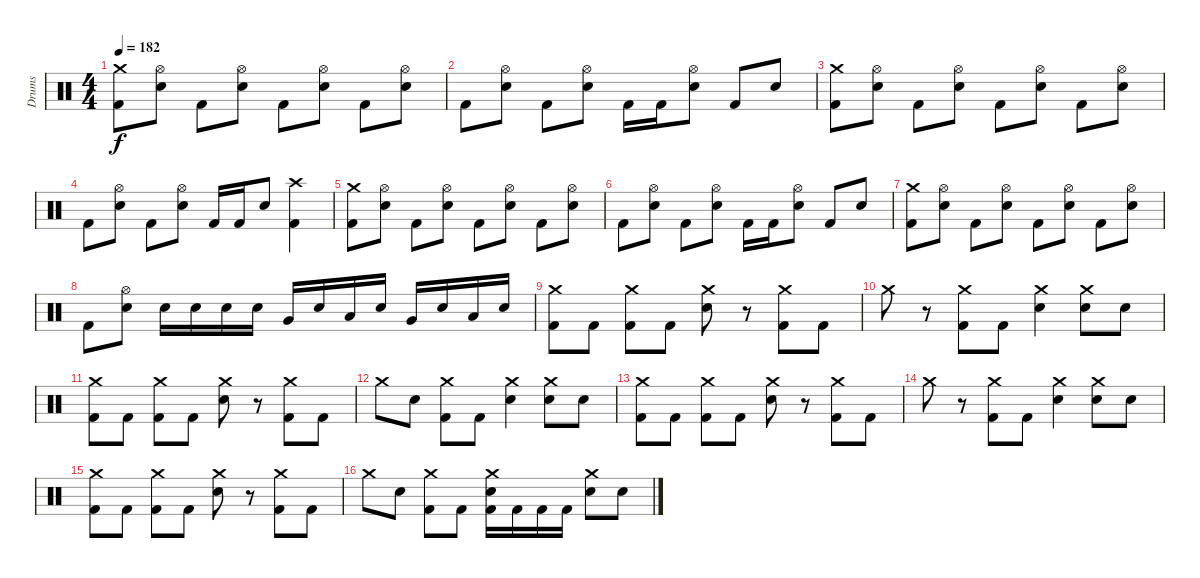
\track ("Drums" "Drums") {instrument percussion}
\staff
\articulation defaults
\ts (4 4)
\tempo 182
\clef neutral
\ks c
("Crash medium (hit)" "Kick (hit) 2").8{dy f} ("Hi-Hat (open)" "Electric Snare (hit)").8 "Kick (hit) 2".8 ("Hi-Hat (open)" "Electric Snare (hit)").8 "Kick (hit) 2".8 ("Hi-Hat (open)" "Electric Snare (hit)").8 "Kick (hit) 2".8 ("Hi-Hat (open)" "Electric Snare (hit)").8 |
"Kick (hit) 2".8 ("Hi-Hat (open)" "Electric Snare (hit)").8 "Kick (hit) 2".8 ("Hi-Hat (open)" "Electric Snare (hit)").8 "Kick (hit) 2".16 "Kick (hit) 2".16 ("Hi-Hat (open)" "Electric Snare (hit)").8 "Kick (hit) 2".8 "Electric Snare (hit)".8 |
("Crash medium (hit)" "Kick (hit) 2").8 ("Hi-Hat (open)" "Electric Snare (hit)").8 "Kick (hit) 2".8 ("Hi-Hat (open)" "Electric Snare (hit)").8 "Kick (hit) 2".8 ("Hi-Hat (open)" "Electric Snare (hit)").8 "Kick (hit) 2".8 ("Hi-Hat (open)" "Electric Snare (hit)").8 |
"Kick (hit) 2".8 ("Hi-Hat (open)" "Electric Snare (hit)").8 "Kick (hit) 2".8 ("Hi-Hat (open)" "Electric Snare (hit)").8 "Kick (hit) 2".16 "Kick (hit) 2".16 "Electric Snare (hit)".8 ("Crash high (hit)" "Kick (hit) 2").4 |
("Crash medium (hit)" "Kick (hit) 2").8 ("Hi-Hat (open)" "Electric Snare (hit)").8 "Kick (hit) 2".8 ("Hi-Hat (open)" "Electric Snare (hit)").8 "Kick (hit) 2".8 ("Hi-Hat (open)" "Electric Snare (hit)").8 "Kick (hit) 2".8 ("Hi-Hat (open)" "Electric Snare (hit)").8 |
"Kick (hit) 2".8 ("Hi-Hat (open)" "Electric Snare (hit)").8 "Kick (hit) 2".8 ("Hi-Hat (open)" "Electric Snare (hit)").8 "Kick (hit) 2".16 "Kick (hit) 2".16 ("Hi-Hat (open)" "Electric Snare (hit)").8 "Kick (hit) 2".8 "Electric Snare (hit)".8 |
("Crash medium (hit)" "Kick (hit) 2").8 ("Hi-Hat (open)" "Electric Snare (hit)").8 "Kick (hit) 2".8 ("Hi-Hat (open)" "Electric Snare (hit)").8 "Kick (hit) 2".8 ("Hi-Hat (open)" "Electric Snare (hit)").8 "Kick (hit) 2".8 ("Hi-Hat (open)" "Electric Snare (hit)").8 |
"Kick (hit) 2".8 ("Hi-Hat (open)" "Electric Snare (hit)").8 "Electric Snare (hit)".16 "Electric Snare (hit)".16 "Electric Snare (hit)".16 "Electric Snare (hit)".16 "Very Low Tom (hit)".16 "Electric Snare (hit)".16 "Low Floor Tom (hit)".16 "Electric Snare (hit)".16 "Very Low Tom (hit)".16 "Electric Snare (hit)".16 "Low Floor Tom (hit)".16 "Electric Snare (hit)".16 |
("Crash medium (hit)" "Kick (hit) 2").8 "Kick (hit) 2".8 ("Crash medium (hit)" "Kick (hit) 2").8 "Kick (hit) 2".8 ("Crash medium (hit)" "Electric Snare (hit)").8 r.8 ("Crash medium (hit)" "Kick (hit) 2").8 "Kick (hit) 2".8 |
"Crash medium (hit)".8 r.8 ("Crash medium (hit)" "Kick (hit) 2").8 "Kick (hit) 2".8 ("Crash medium (hit)" "Electric Snare (hit)").4 ("Crash medium (hit)" "Electric Snare (hit)").8 "Electric Snare (hit)".8 |
("Crash medium (hit)" "Kick (hit) 2").8 "Kick (hit) 2".8 ("Crash medium (hit)" "Kick (hit) 2").8 "Kick (hit) 2".8 ("Crash medium (hit)" "Electric Snare (hit)").8 r.8 ("Crash medium (hit)" "Kick (hit) 2").8 "Kick (hit) 2".8 |
"Crash medium (hit)".8 "Electric Snare (hit)".8 ("Crash medium (hit)" "Kick (hit) 2").8 "Kick (hit) 2".8 ("Crash medium (hit)" "Electric Snare (hit)").4 ("Crash medium (hit)" "Electric Snare (hit)").8 "Electric Snare (hit)".8 |
("Crash medium (hit)" "Kick (hit) 2").8 "Kick (hit) 2".8 ("Crash medium (hit)" "Kick (hit) 2").8 "Kick (hit) 2".8 ("Crash medium (hit)" "Electric Snare (hit)").8 r.8 ("Crash medium (hit)" "Kick (hit) 2").8 "Kick (hit) 2".8 |
"Crash medium (hit)".8 r.8 ("Crash medium (hit)" "Kick (hit) 2").8 "Kick (hit) 2".8 ("Crash medium (hit)" "Electric Snare (hit)").4 ("Crash medium (hit)" "Electric Snare (hit)").8 "Electric Snare (hit)".8 |
("Crash medium (hit)" "Kick (hit) 2").8 "Kick (hit) 2".8 ("Crash medium (hit)" "Kick (hit) 2").8 "Kick (hit) 2".8 ("Crash medium (hit)" "Electric Snare (hit)").8 r.8 ("Crash medium (hit)" "Kick (hit) 2").8 "Kick (hit) 2".8 |
"Crash medium (hit)".8 "Electric Snare (hit)".8 ("Crash medium (hit)" "Kick (hit) 2").8 "Kick (hit) 2".8 ("Crash medium (hit)" "Electric Snare (hit)" "Kick (hit) 2").16 "Kick (hit) 2".16 "Kick (hit) 2".16 "Kick (hit) 2".16 ("Crash medium (hit)" "Electric Snare (hit)").8 "Electric Snare (hit)".8
